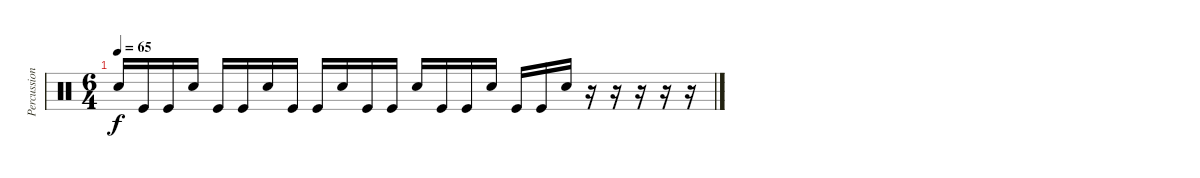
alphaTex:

\track ("Percussion" "Percussion") {instrument percussion}
\staff {score}
\articulation defaults
\ts (6 4)
\tempo 65
\clef neutral
\ks c "Snare (hit) 2".16{dy f} "Kick (hit)".16 "Kick (hit)".16 "Snare (hit) 2".16 "Kick (hit)".16 "Kick (hit)".16 "Snare (hit) 2".16 "Kick (hit)".16 "Kick (hit)".16 "Snare (hit) 2".16 "Kick (hit)".16 "Kick (hit)".16 "Snare (hit) 2".16 "Kick (hit)".16 "Kick (hit)".16 "Snare (hit) 2".16 "Kick (hit)".16 "Kick (hit)".16 "Snare (hit) 2".16
r.16 r.16 r.16 r.16 r.16
